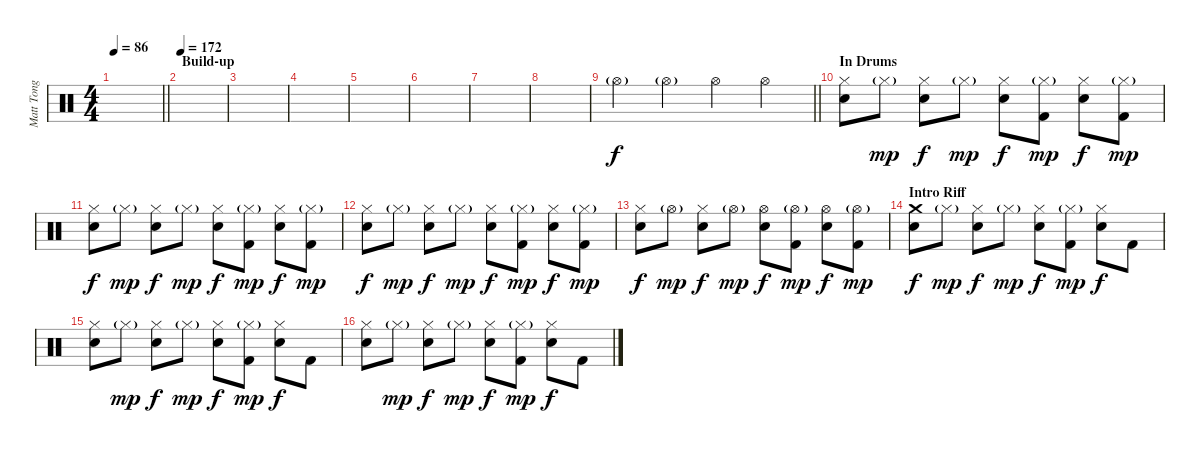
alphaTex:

\track ("Matt Tong" "Matt Tong") {instrument percussion}
\staff {score}
\articulation defaults
\ts (4 4)
\tempo 86
\clef neutral
\barLineRight lightlight
\ks c
|
\section ("" "Build-up")
\tempo 172
|
|
|
|
|
|
|
\barLineRight lightlight "Hi-Hat (open)"{g}.4 "Hi-Hat (open)"{g}.4 "Hi-Hat (open)".4{dy f} "Hi-Hat (open)".4
|
\section ("" "In Drums")
("Hi-Hat (closed)" "Snare (hit) 2").8 "Hi-Hat (closed)"{g}.8{dy mp} ("Hi-Hat (closed)" "Snare (hit) 2").8{dy f} "Hi-Hat (closed)"{g}.8{dy mp} ("Hi-Hat (closed)" "Snare (hit) 2").8{dy f} ("Hi-Hat (closed)"{g} "Kick (hit) 2").8{dy mp} ("Hi-Hat (closed)" "Snare (hit) 2").8{dy f} ("Hi-Hat (closed)"{g} "Kick (hit) 2").8{dy mp} |
("Hi-Hat (closed)" "Snare (hit) 2").8{dy f} "Hi-Hat (closed)"{g}.8{dy mp} ("Hi-Hat (closed)" "Snare (hit) 2").8{dy f} "Hi-Hat (closed)"{g}.8{dy mp} ("Hi-Hat (closed)" "Snare (hit) 2").8{dy f} ("Hi-Hat (closed)"{g} "Kick (hit) 2").8{dy mp} ("Hi-Hat (closed)" "Snare (hit) 2").8{dy f} ("Hi-Hat (closed)"{g} "Kick (hit) 2").8{dy mp} |
("Hi-Hat (closed)" "Snare (hit) 2").8{dy f} "Hi-Hat (closed)"{g}.8{dy mp} ("Hi-Hat (closed)" "Snare (hit) 2").8{dy f} "Hi-Hat (closed)"{g}.8{dy mp} ("Hi-Hat (closed)" "Snare (hit) 2").8{dy f} ("Hi-Hat (closed)"{g} "Kick (hit) 2").8{dy mp} ("Hi-Hat (closed)" "Snare (hit) 2").8{dy f} ("Hi-Hat (closed)"{g} "Kick (hit) 2").8{dy mp} |
("Hi-Hat (closed)" "Snare (hit) 2").8{dy f} "Hi-Hat (open)"{g}.8{dy mp} ("Hi-Hat (closed)" "Snare (hit) 2").8{dy f} "Hi-Hat (open)"{g}.8{dy mp} ("Hi-Hat (open)" "Snare (hit) 2").8{dy f} ("Hi-Hat (open)"{g} "Kick (hit) 2").8{dy mp} ("Hi-Hat (open)" "Snare (hit) 2").8{dy f} ("Hi-Hat (open)"{g} "Kick (hit) 2").8{dy mp} |
\section ("" "Intro Riff")
("Crash medium (hit)" "Snare (hit) 2").8{dy f} "Hi-Hat (closed)"{g}.8{dy mp} ("Hi-Hat (closed)" "Snare (hit) 2").8{dy f} "Hi-Hat (closed)"{g}.8{dy mp} ("Hi-Hat (closed)" "Snare (hit) 2").8{dy f} ("Hi-Hat (closed)"{g} "Kick (hit) 2").8{dy mp} ("Hi-Hat (closed)" "Snare (hit) 2").8{dy f} "Kick (hit) 2".8 |
("Hi-Hat (closed)" "Snare (hit) 2").8 "Hi-Hat (closed)"{g}.8{dy mp} ("Hi-Hat (closed)" "Snare (hit) 2").8{dy f} "Hi-Hat (closed)"{g}.8{dy mp} ("Hi-Hat (closed)" "Snare (hit) 2").8{dy f} ("Hi-Hat (closed)"{g} "Kick (hit) 2").8{dy mp} ("Hi-Hat (closed)" "Snare (hit) 2").8{dy f} "Kick (hit) 2".8 |
("Hi-Hat (closed)" "Snare (hit) 2").8 "Hi-Hat (closed)"{g}.8{dy mp} ("Hi-Hat (closed)" "Snare (hit) 2").8{dy f} "Hi-Hat (closed)"{g}.8{dy mp} ("Hi-Hat (closed)" "Snare (hit) 2").8{dy f} ("Hi-Hat (closed)"{g} "Kick (hit) 2").8{dy mp} ("Hi-Hat (closed)" "Snare (hit) 2").8{dy f} "Kick (hit) 2".8
